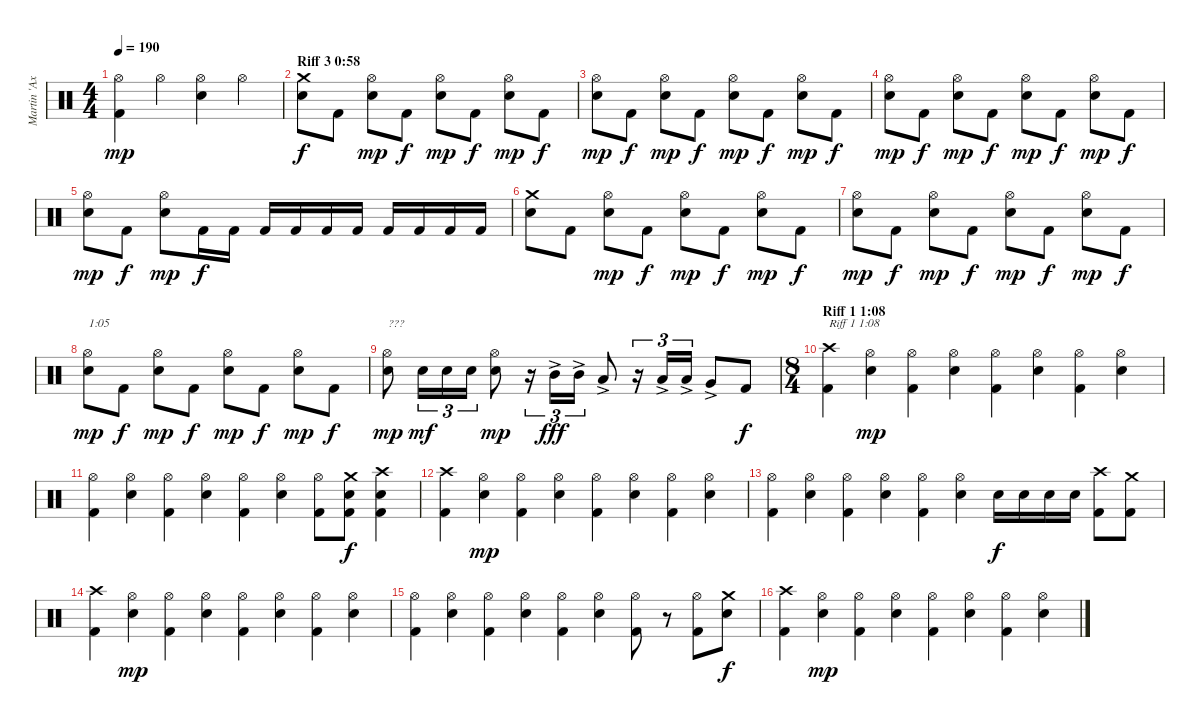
\track ("Martin 'Axe' Axenroth" "Martin 'Ax") {instrument percussion}
\staff {score}
\articulation defaults
\ts (4 4)
\tempo 190
\clef neutral
\ks c
("Kick (hit) 2" "Hi-Hat (open)").4{dy mp} "Hi-Hat (open)".4 ("Electric Snare (hit)" "Hi-Hat (open)").4 "Hi-Hat (open)".4 |
\section ("" "Riff 3 0:58")
("Electric Snare (hit)" "Crash medium (hit)").8{dy f} "Kick (hit) 2".8 ("Electric Snare (hit)" "Hi-Hat (open)").8{dy mp} "Kick (hit) 2".8{dy f} ("Electric Snare (hit)" "Hi-Hat (open)").8{dy mp} "Kick (hit) 2".8{dy f} ("Electric Snare (hit)" "Hi-Hat (open)").8{dy mp} "Kick (hit) 2".8{dy f} |
("Electric Snare (hit)" "Hi-Hat (open)").8{dy mp} "Kick (hit) 2".8{dy f} ("Electric Snare (hit)" "Hi-Hat (open)").8{dy mp} "Kick (hit) 2".8{dy f} ("Electric Snare (hit)" "Hi-Hat (open)").8{dy mp} "Kick (hit) 2".8{dy f} ("Electric Snare (hit)" "Hi-Hat (open)").8{dy mp} "Kick (hit) 2".8{dy f} |
("Electric Snare (hit)" "Hi-Hat (open)").8{dy mp} "Kick (hit) 2".8{dy f} ("Electric Snare (hit)" "Hi-Hat (open)").8{dy mp} "Kick (hit) 2".8{dy f} ("Electric Snare (hit)" "Hi-Hat (open)").8{dy mp} "Kick (hit) 2".8{dy f} ("Electric Snare (hit)" "Hi-Hat (open)").8{dy mp} "Kick (hit) 2".8{dy f} |
("Electric Snare (hit)" "Hi-Hat (open)").8{dy mp} "Kick (hit) 2".8{dy f} ("Electric Snare (hit)" "Hi-Hat (open)").8{dy mp} "Kick (hit) 2".16{dy f} "Kick (hit) 2".16 "Kick (hit) 2".16 "Kick (hit) 2".16 "Kick (hit) 2".16 "Kick (hit) 2".16 "Kick (hit) 2".16 "Kick (hit) 2".16 "Kick (hit) 2".16 "Kick (hit) 2".16 |
("Electric Snare (hit)" "Crash medium (hit)").8 "Kick (hit) 2".8 ("Electric Snare (hit)" "Hi-Hat (open)").8{dy mp} "Kick (hit) 2".8{dy f} ("Electric Snare (hit)" "Hi-Hat (open)").8{dy mp} "Kick (hit) 2".8{dy f} ("Electric Snare (hit)" "Hi-Hat (open)").8{dy mp} "Kick (hit) 2".8{dy f} |
("Electric Snare (hit)" "Hi-Hat (open)").8{dy mp} "Kick (hit) 2".8{dy f} ("Electric Snare (hit)" "Hi-Hat (open)").8{dy mp} "Kick (hit) 2".8{dy f} ("Electric Snare (hit)" "Hi-Hat (open)").8{dy mp} "Kick (hit) 2".8{dy f} ("Electric Snare (hit)" "Hi-Hat (open)").8{dy mp} "Kick (hit) 2".8{dy f} |
("Electric Snare (hit)" "Hi-Hat (open)").8{txt "1:05" dy mp} "Kick (hit) 2".8{dy f} ("Electric Snare (hit)" "Hi-Hat (open)").8{dy mp} "Kick (hit) 2".8{dy f} ("Electric Snare (hit)" "Hi-Hat (open)").8{dy mp} "Kick (hit) 2".8{dy f} ("Electric Snare (hit)" "Hi-Hat (open)").8{dy mp} "Kick (hit) 2".8{dy f} |
("Electric Snare (hit)" "Hi-Hat (open)").8{txt "???" dy mp} "Electric Snare (hit)".16{tu (3 2) dy mf} "Electric Snare (hit)".16{tu (3 2)} "Electric Snare (hit)".16{tu (3 2)} ("Electric Snare (hit)" "Hi-Hat (open)").8{dy mp} r.16{tu (3 2)} "Mid Tom (hit)"{ac}.16{tu (3 2) dy fff} "Mid Tom (hit)"{ac}.16{tu (3 2)} "Low Tom (hit)"{ac}.8 r.16{tu (3 2)} "Low Tom (hit)"{ac}.16{tu (3 2)} "Low Tom (hit)"{ac}.16{tu (3 2)} "Very Low Tom (hit)"{ac}.8 "Kick (hit) 2".8{dy f} |
\ts (8 4)
\section ("" "Riff 1 1:08")
("Kick (hit) 2" "Crash high (hit)").4{txt "Riff 1 1:08"} ("Electric Snare (hit)" "Hi-Hat (open)").4{dy mp} ("Kick (hit) 2" "Hi-Hat (open)").4 ("Electric Snare (hit)" "Hi-Hat (open)").4 ("Kick (hit) 2" "Hi-Hat (open)").4 ("Electric Snare (hit)" "Hi-Hat (open)").4 ("Kick (hit) 2" "Hi-Hat (open)").4 ("Electric Snare (hit)" "Hi-Hat (open)").4 |
("Kick (hit) 2" "Hi-Hat (open)").4 ("Electric Snare (hit)" "Hi-Hat (open)").4 ("Kick (hit) 2" "Hi-Hat (open)").4 ("Electric Snare (hit)" "Hi-Hat (open)").4 ("Kick (hit) 2" "Hi-Hat (open)").4 ("Electric Snare (hit)" "Hi-Hat (open)").4 ("Kick (hit) 2" "Hi-Hat (open)").8 ("Kick (hit) 2" "Electric Snare (hit)" "Crash medium (hit)").8{dy f} ("Kick (hit) 2" "Electric Snare (hit)" "Crash high (hit)").4 |
("Kick (hit) 2" "Crash high (hit)").4 ("Electric Snare (hit)" "Hi-Hat (open)").4{dy mp} ("Kick (hit) 2" "Hi-Hat (open)").4 ("Electric Snare (hit)" "Hi-Hat (open)").4 ("Kick (hit) 2" "Hi-Hat (open)").4 ("Electric Snare (hit)" "Hi-Hat (open)").4 ("Kick (hit) 2" "Hi-Hat (open)").4 ("Electric Snare (hit)" "Hi-Hat (open)").4 |
("Kick (hit) 2" "Hi-Hat (open)").4 ("Electric Snare (hit)" "Hi-Hat (open)").4 ("Kick (hit) 2" "Hi-Hat (open)").4 ("Electric Snare (hit)" "Hi-Hat (open)").4 ("Kick (hit) 2" "Hi-Hat (open)").4 ("Electric Snare (hit)" "Hi-Hat (open)").4 "Electric Snare (hit)".16{dy f} "Electric Snare (hit)".16 "Electric Snare (hit)".16 "Electric Snare (hit)".16 ("Kick (hit) 2" "Crash high (hit)").8 ("Kick (hit) 2" "Crash medium (hit)").8 |
("Kick (hit) 2" "Crash high (hit)").4 ("Electric Snare (hit)" "Hi-Hat (open)").4{dy mp} ("Kick (hit) 2" "Hi-Hat (open)").4 ("Electric Snare (hit)" "Hi-Hat (open)").4 ("Kick (hit) 2" "Hi-Hat (open)").4 ("Electric Snare (hit)" "Hi-Hat (open)").4 ("Kick (hit) 2" "Hi-Hat (open)").4 ("Electric Snare (hit)" "Hi-Hat (open)").4 |
("Kick (hit) 2" "Hi-Hat (open)").4 ("Electric Snare (hit)" "Hi-Hat (open)").4 ("Kick (hit) 2" "Hi-Hat (open)").4 ("Electric Snare (hit)" "Hi-Hat (open)").4 ("Kick (hit) 2" "Hi-Hat (open)").4 ("Electric Snare (hit)" "Hi-Hat (open)").4 ("Kick (hit) 2" "Hi-Hat (open)").8 r.8 ("Kick (hit) 2" "Hi-Hat (open)").8 ("Electric Snare (hit)" "Crash medium (hit)").8{dy f} |
("Kick (hit) 2" "Crash high (hit)").4 ("Electric Snare (hit)" "Hi-Hat (open)").4{dy mp} ("Kick (hit) 2" "Hi-Hat (open)").4 ("Electric Snare (hit)" "Hi-Hat (open)").4 ("Kick (hit) 2" "Hi-Hat (open)").4 ("Electric Snare (hit)" "Hi-Hat (open)").4 ("Kick (hit) 2" "Hi-Hat (open)").4 ("Electric Snare (hit)" "Hi-Hat (open)").4
